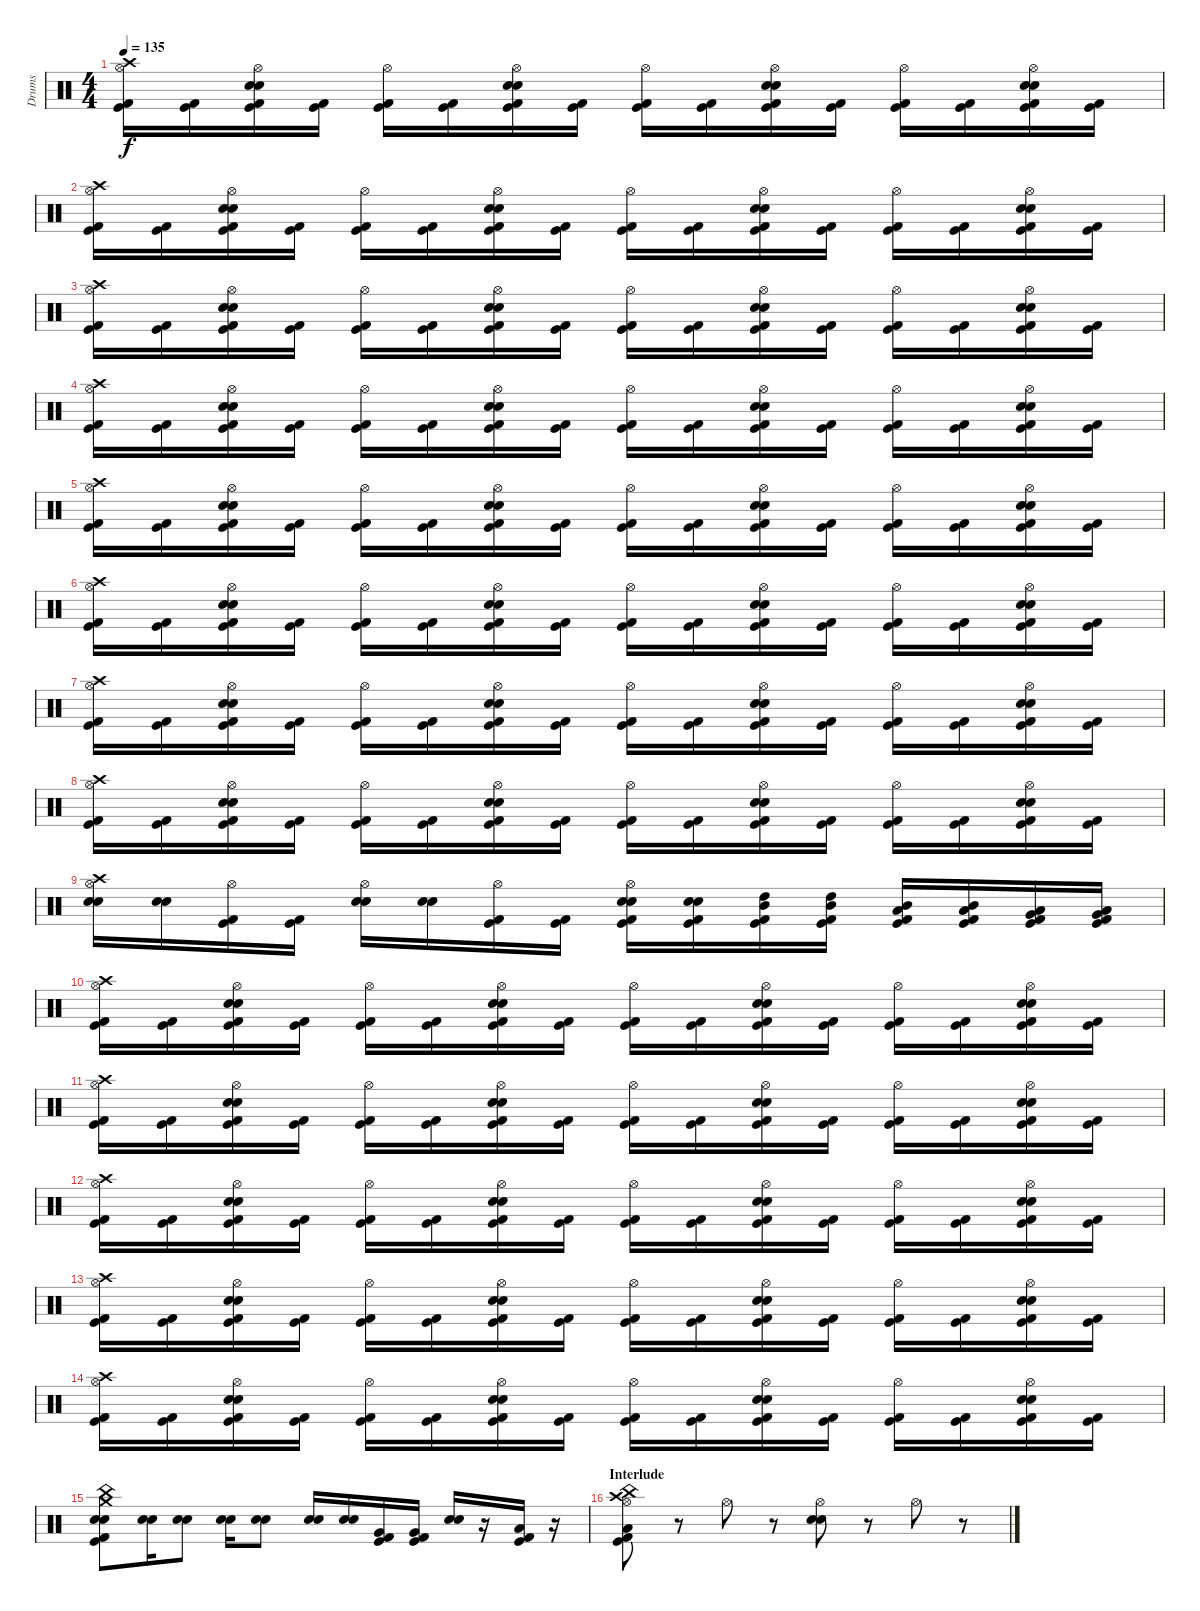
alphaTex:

\track ("Drums" "Drums") {instrument percussion}
\staff {score}
\articulation defaults
\ts (4 4)
\tempo 135
\clef neutral
\ks c
("Crash high (hit)" "Hi-Hat (open)" "Kick (hit) 2" "Kick (hit)").16{dy f} ("Kick (hit) 2" "Kick (hit)").16 ("Hi-Hat (open)" "Snare (hit) 2" "Electric Snare (hit)" "Kick (hit) 2" "Kick (hit)").16 ("Kick (hit) 2" "Kick (hit)").16 ("Hi-Hat (open)" "Kick (hit) 2" "Kick (hit)").16 ("Kick (hit) 2" "Kick (hit)").16 ("Hi-Hat (open)" "Snare (hit) 2" "Electric Snare (hit)" "Kick (hit) 2" "Kick (hit)").16 ("Kick (hit) 2" "Kick (hit)").16 ("Hi-Hat (open)" "Kick (hit) 2" "Kick (hit)").16 ("Kick (hit) 2" "Kick (hit)").16 ("Hi-Hat (open)" "Snare (hit) 2" "Electric Snare (hit)" "Kick (hit) 2" "Kick (hit)").16 ("Kick (hit) 2" "Kick (hit)").16 ("Hi-Hat (open)" "Kick (hit) 2" "Kick (hit)").16 ("Kick (hit) 2" "Kick (hit)").16 ("Hi-Hat (open)" "Snare (hit) 2" "Electric Snare (hit)" "Kick (hit) 2" "Kick (hit)").16 ("Kick (hit) 2" "Kick (hit)").16 |
("Crash high (hit)" "Hi-Hat (open)" "Kick (hit) 2" "Kick (hit)").16 ("Kick (hit) 2" "Kick (hit)").16 ("Hi-Hat (open)" "Snare (hit) 2" "Electric Snare (hit)" "Kick (hit) 2" "Kick (hit)").16 ("Kick (hit) 2" "Kick (hit)").16 ("Hi-Hat (open)" "Kick (hit) 2" "Kick (hit)").16 ("Kick (hit) 2" "Kick (hit)").16 ("Hi-Hat (open)" "Snare (hit) 2" "Electric Snare (hit)" "Kick (hit) 2" "Kick (hit)").16 ("Kick (hit) 2" "Kick (hit)").16 ("Hi-Hat (open)" "Kick (hit) 2" "Kick (hit)").16 ("Kick (hit) 2" "Kick (hit)").16 ("Hi-Hat (open)" "Snare (hit) 2" "Electric Snare (hit)" "Kick (hit) 2" "Kick (hit)").16 ("Kick (hit) 2" "Kick (hit)").16 ("Hi-Hat (open)" "Kick (hit) 2" "Kick (hit)").16 ("Kick (hit) 2" "Kick (hit)").16 ("Hi-Hat (open)" "Snare (hit) 2" "Electric Snare (hit)" "Kick (hit) 2" "Kick (hit)").16 ("Kick (hit) 2" "Kick (hit)").16 |
("Crash high (hit)" "Hi-Hat (open)" "Kick (hit) 2" "Kick (hit)").16 ("Kick (hit) 2" "Kick (hit)").16 ("Hi-Hat (open)" "Snare (hit) 2" "Electric Snare (hit)" "Kick (hit) 2" "Kick (hit)").16 ("Kick (hit) 2" "Kick (hit)").16 ("Hi-Hat (open)" "Kick (hit) 2" "Kick (hit)").16 ("Kick (hit) 2" "Kick (hit)").16 ("Hi-Hat (open)" "Snare (hit) 2" "Electric Snare (hit)" "Kick (hit) 2" "Kick (hit)").16 ("Kick (hit) 2" "Kick (hit)").16 ("Hi-Hat (open)" "Kick (hit) 2" "Kick (hit)").16 ("Kick (hit) 2" "Kick (hit)").16 ("Hi-Hat (open)" "Snare (hit) 2" "Electric Snare (hit)" "Kick (hit) 2" "Kick (hit)").16 ("Kick (hit) 2" "Kick (hit)").16 ("Hi-Hat (open)" "Kick (hit) 2" "Kick (hit)").16 ("Kick (hit) 2" "Kick (hit)").16 ("Hi-Hat (open)" "Snare (hit) 2" "Electric Snare (hit)" "Kick (hit) 2" "Kick (hit)").16 ("Kick (hit) 2" "Kick (hit)").16 |
("Crash high (hit)" "Hi-Hat (open)" "Kick (hit) 2" "Kick (hit)").16 ("Kick (hit) 2" "Kick (hit)").16 ("Hi-Hat (open)" "Snare (hit) 2" "Electric Snare (hit)" "Kick (hit) 2" "Kick (hit)").16 ("Kick (hit) 2" "Kick (hit)").16 ("Hi-Hat (open)" "Kick (hit) 2" "Kick (hit)").16 ("Kick (hit) 2" "Kick (hit)").16 ("Hi-Hat (open)" "Snare (hit) 2" "Electric Snare (hit)" "Kick (hit) 2" "Kick (hit)").16 ("Kick (hit) 2" "Kick (hit)").16 ("Hi-Hat (open)" "Kick (hit) 2" "Kick (hit)").16 ("Kick (hit) 2" "Kick (hit)").16 ("Hi-Hat (open)" "Snare (hit) 2" "Electric Snare (hit)" "Kick (hit) 2" "Kick (hit)").16 ("Kick (hit) 2" "Kick (hit)").16 ("Hi-Hat (open)" "Kick (hit) 2" "Kick (hit)").16 ("Kick (hit) 2" "Kick (hit)").16 ("Hi-Hat (open)" "Snare (hit) 2" "Electric Snare (hit)" "Kick (hit) 2" "Kick (hit)").16 ("Kick (hit) 2" "Kick (hit)").16 |
("Crash high (hit)" "Hi-Hat (open)" "Kick (hit) 2" "Kick (hit)").16 ("Kick (hit) 2" "Kick (hit)").16 ("Hi-Hat (open)" "Snare (hit) 2" "Electric Snare (hit)" "Kick (hit) 2" "Kick (hit)").16 ("Kick (hit) 2" "Kick (hit)").16 ("Hi-Hat (open)" "Kick (hit) 2" "Kick (hit)").16 ("Kick (hit) 2" "Kick (hit)").16 ("Hi-Hat (open)" "Snare (hit) 2" "Electric Snare (hit)" "Kick (hit) 2" "Kick (hit)").16 ("Kick (hit) 2" "Kick (hit)").16 ("Hi-Hat (open)" "Kick (hit) 2" "Kick (hit)").16 ("Kick (hit) 2" "Kick (hit)").16 ("Hi-Hat (open)" "Snare (hit) 2" "Electric Snare (hit)" "Kick (hit) 2" "Kick (hit)").16 ("Kick (hit) 2" "Kick (hit)").16 ("Hi-Hat (open)" "Kick (hit) 2" "Kick (hit)").16 ("Kick (hit) 2" "Kick (hit)").16 ("Hi-Hat (open)" "Snare (hit) 2" "Electric Snare (hit)" "Kick (hit) 2" "Kick (hit)").16 ("Kick (hit) 2" "Kick (hit)").16 |
("Crash high (hit)" "Hi-Hat (open)" "Kick (hit) 2" "Kick (hit)").16 ("Kick (hit) 2" "Kick (hit)").16 ("Hi-Hat (open)" "Snare (hit) 2" "Electric Snare (hit)" "Kick (hit) 2" "Kick (hit)").16 ("Kick (hit) 2" "Kick (hit)").16 ("Hi-Hat (open)" "Kick (hit) 2" "Kick (hit)").16 ("Kick (hit) 2" "Kick (hit)").16 ("Hi-Hat (open)" "Snare (hit) 2" "Electric Snare (hit)" "Kick (hit) 2" "Kick (hit)").16 ("Kick (hit) 2" "Kick (hit)").16 ("Hi-Hat (open)" "Kick (hit) 2" "Kick (hit)").16 ("Kick (hit) 2" "Kick (hit)").16 ("Hi-Hat (open)" "Snare (hit) 2" "Electric Snare (hit)" "Kick (hit) 2" "Kick (hit)").16 ("Kick (hit) 2" "Kick (hit)").16 ("Hi-Hat (open)" "Kick (hit) 2" "Kick (hit)").16 ("Kick (hit) 2" "Kick (hit)").16 ("Hi-Hat (open)" "Snare (hit) 2" "Electric Snare (hit)" "Kick (hit) 2" "Kick (hit)").16 ("Kick (hit) 2" "Kick (hit)").16 |
("Crash high (hit)" "Hi-Hat (open)" "Kick (hit) 2" "Kick (hit)").16 ("Kick (hit) 2" "Kick (hit)").16 ("Hi-Hat (open)" "Snare (hit) 2" "Electric Snare (hit)" "Kick (hit) 2" "Kick (hit)").16 ("Kick (hit) 2" "Kick (hit)").16 ("Hi-Hat (open)" "Kick (hit) 2" "Kick (hit)").16 ("Kick (hit) 2" "Kick (hit)").16 ("Hi-Hat (open)" "Snare (hit) 2" "Electric Snare (hit)" "Kick (hit) 2" "Kick (hit)").16 ("Kick (hit) 2" "Kick (hit)").16 ("Hi-Hat (open)" "Kick (hit) 2" "Kick (hit)").16 ("Kick (hit) 2" "Kick (hit)").16 ("Hi-Hat (open)" "Snare (hit) 2" "Electric Snare (hit)" "Kick (hit) 2" "Kick (hit)").16 ("Kick (hit) 2" "Kick (hit)").16 ("Hi-Hat (open)" "Kick (hit) 2" "Kick (hit)").16 ("Kick (hit) 2" "Kick (hit)").16 ("Hi-Hat (open)" "Snare (hit) 2" "Electric Snare (hit)" "Kick (hit) 2" "Kick (hit)").16 ("Kick (hit) 2" "Kick (hit)").16 |
("Crash high (hit)" "Hi-Hat (open)" "Kick (hit) 2" "Kick (hit)").16 ("Kick (hit) 2" "Kick (hit)").16 ("Hi-Hat (open)" "Snare (hit) 2" "Electric Snare (hit)" "Kick (hit) 2" "Kick (hit)").16 ("Kick (hit) 2" "Kick (hit)").16 ("Hi-Hat (open)" "Kick (hit) 2" "Kick (hit)").16 ("Kick (hit) 2" "Kick (hit)").16 ("Hi-Hat (open)" "Snare (hit) 2" "Electric Snare (hit)" "Kick (hit) 2" "Kick (hit)").16 ("Kick (hit) 2" "Kick (hit)").16 ("Hi-Hat (open)" "Kick (hit) 2" "Kick (hit)").16 ("Kick (hit) 2" "Kick (hit)").16 ("Hi-Hat (open)" "Snare (hit) 2" "Electric Snare (hit)" "Kick (hit) 2" "Kick (hit)").16 ("Kick (hit) 2" "Kick (hit)").16 ("Hi-Hat (open)" "Kick (hit) 2" "Kick (hit)").16 ("Kick (hit) 2" "Kick (hit)").16 ("Hi-Hat (open)" "Snare (hit) 2" "Electric Snare (hit)" "Kick (hit) 2" "Kick (hit)").16 ("Kick (hit) 2" "Kick (hit)").16 |
("Crash high (hit)" "Hi-Hat (open)" "Electric Snare (hit)" "Snare (hit) 2").16 ("Snare (hit) 2" "Electric Snare (hit)").16 ("Hi-Hat (open)" "Kick (hit) 2" "Kick (hit)").16 ("Kick (hit) 2" "Kick (hit)").16 ("Hi-Hat (open)" "Electric Snare (hit)" "Snare (hit) 2").16 ("Electric Snare (hit)" "Snare (hit) 2").16 ("Hi-Hat (open)" "Kick (hit) 2" "Kick (hit)").16 ("Kick (hit) 2" "Kick (hit)").16 ("Hi-Hat (open)" "Electric Snare (hit)" "Snare (hit) 2" "Kick (hit) 2" "Kick (hit)").16 ("Electric Snare (hit)" "Snare (hit) 2" "Kick (hit) 2" "Kick (hit)").16 ("High Tom (hit)" "Mid Tom (hit)" "Kick (hit) 2" "Kick (hit)").16 ("High Tom (hit)" "Mid Tom (hit)" "Kick (hit) 2" "Kick (hit)").16 ("Mid Tom (hit)" "Low Tom (hit)" "Kick (hit) 2" "Kick (hit)").16 ("Mid Tom (hit)" "Low Tom (hit)" "Kick (hit) 2" "Kick (hit)").16 ("Low Tom (hit)" "Very Low Tom (hit)" "Kick (hit) 2" "Kick (hit)").16 ("Low Tom (hit)" "Very Low Tom (hit)" "Kick (hit) 2" "Kick (hit)").16 |
("Crash high (hit)" "Hi-Hat (open)" "Kick (hit) 2" "Kick (hit)").16 ("Kick (hit) 2" "Kick (hit)").16 ("Hi-Hat (open)" "Snare (hit) 2" "Electric Snare (hit)" "Kick (hit) 2" "Kick (hit)").16 ("Kick (hit) 2" "Kick (hit)").16 ("Hi-Hat (open)" "Kick (hit) 2" "Kick (hit)").16 ("Kick (hit) 2" "Kick (hit)").16 ("Hi-Hat (open)" "Snare (hit) 2" "Electric Snare (hit)" "Kick (hit) 2" "Kick (hit)").16 ("Kick (hit) 2" "Kick (hit)").16 ("Hi-Hat (open)" "Kick (hit) 2" "Kick (hit)").16 ("Kick (hit) 2" "Kick (hit)").16 ("Hi-Hat (open)" "Snare (hit) 2" "Electric Snare (hit)" "Kick (hit) 2" "Kick (hit)").16 ("Kick (hit) 2" "Kick (hit)").16 ("Hi-Hat (open)" "Kick (hit) 2" "Kick (hit)").16 ("Kick (hit) 2" "Kick (hit)").16 ("Hi-Hat (open)" "Snare (hit) 2" "Electric Snare (hit)" "Kick (hit) 2" "Kick (hit)").16 ("Kick (hit) 2" "Kick (hit)").16 |
("Crash high (hit)" "Hi-Hat (open)" "Kick (hit) 2" "Kick (hit)").16 ("Kick (hit) 2" "Kick (hit)").16 ("Hi-Hat (open)" "Snare (hit) 2" "Electric Snare (hit)" "Kick (hit) 2" "Kick (hit)").16 ("Kick (hit) 2" "Kick (hit)").16 ("Hi-Hat (open)" "Kick (hit) 2" "Kick (hit)").16 ("Kick (hit) 2" "Kick (hit)").16 ("Hi-Hat (open)" "Snare (hit) 2" "Electric Snare (hit)" "Kick (hit) 2" "Kick (hit)").16 ("Kick (hit) 2" "Kick (hit)").16 ("Hi-Hat (open)" "Kick (hit) 2" "Kick (hit)").16 ("Kick (hit) 2" "Kick (hit)").16 ("Hi-Hat (open)" "Snare (hit) 2" "Electric Snare (hit)" "Kick (hit) 2" "Kick (hit)").16 ("Kick (hit) 2" "Kick (hit)").16 ("Hi-Hat (open)" "Kick (hit) 2" "Kick (hit)").16 ("Kick (hit) 2" "Kick (hit)").16 ("Hi-Hat (open)" "Snare (hit) 2" "Electric Snare (hit)" "Kick (hit) 2" "Kick (hit)").16 ("Kick (hit) 2" "Kick (hit)").16 |
("Crash high (hit)" "Hi-Hat (open)" "Kick (hit) 2" "Kick (hit)").16 ("Kick (hit) 2" "Kick (hit)").16 ("Hi-Hat (open)" "Snare (hit) 2" "Electric Snare (hit)" "Kick (hit) 2" "Kick (hit)").16 ("Kick (hit) 2" "Kick (hit)").16 ("Hi-Hat (open)" "Kick (hit) 2" "Kick (hit)").16 ("Kick (hit) 2" "Kick (hit)").16 ("Hi-Hat (open)" "Snare (hit) 2" "Electric Snare (hit)" "Kick (hit) 2" "Kick (hit)").16 ("Kick (hit) 2" "Kick (hit)").16 ("Hi-Hat (open)" "Kick (hit) 2" "Kick (hit)").16 ("Kick (hit) 2" "Kick (hit)").16 ("Hi-Hat (open)" "Snare (hit) 2" "Electric Snare (hit)" "Kick (hit) 2" "Kick (hit)").16 ("Kick (hit) 2" "Kick (hit)").16 ("Hi-Hat (open)" "Kick (hit) 2" "Kick (hit)").16 ("Kick (hit) 2" "Kick (hit)").16 ("Hi-Hat (open)" "Snare (hit) 2" "Electric Snare (hit)" "Kick (hit) 2" "Kick (hit)").16 ("Kick (hit) 2" "Kick (hit)").16 |
("Crash high (hit)" "Hi-Hat (open)" "Kick (hit) 2" "Kick (hit)").16 ("Kick (hit) 2" "Kick (hit)").16 ("Hi-Hat (open)" "Snare (hit) 2" "Electric Snare (hit)" "Kick (hit) 2" "Kick (hit)").16 ("Kick (hit) 2" "Kick (hit)").16 ("Hi-Hat (open)" "Kick (hit) 2" "Kick (hit)").16 ("Kick (hit) 2" "Kick (hit)").16 ("Hi-Hat (open)" "Snare (hit) 2" "Electric Snare (hit)" "Kick (hit) 2" "Kick (hit)").16 ("Kick (hit) 2" "Kick (hit)").16 ("Hi-Hat (open)" "Kick (hit) 2" "Kick (hit)").16 ("Kick (hit) 2" "Kick (hit)").16 ("Hi-Hat (open)" "Snare (hit) 2" "Electric Snare (hit)" "Kick (hit) 2" "Kick (hit)").16 ("Kick (hit) 2" "Kick (hit)").16 ("Hi-Hat (open)" "Kick (hit) 2" "Kick (hit)").16 ("Kick (hit) 2" "Kick (hit)").16 ("Hi-Hat (open)" "Snare (hit) 2" "Electric Snare (hit)" "Kick (hit) 2" "Kick (hit)").16 ("Kick (hit) 2" "Kick (hit)").16 |
("Crash high (hit)" "Hi-Hat (open)" "Kick (hit) 2" "Kick (hit)").16 ("Kick (hit) 2" "Kick (hit)").16 ("Hi-Hat (open)" "Snare (hit) 2" "Electric Snare (hit)" "Kick (hit) 2" "Kick (hit)").16 ("Kick (hit) 2" "Kick (hit)").16 ("Hi-Hat (open)" "Kick (hit) 2" "Kick (hit)").16 ("Kick (hit) 2" "Kick (hit)").16 ("Hi-Hat (open)" "Snare (hit) 2" "Electric Snare (hit)" "Kick (hit) 2" "Kick (hit)").16 ("Kick (hit) 2" "Kick (hit)").16 ("Hi-Hat (open)" "Kick (hit) 2" "Kick (hit)").16 ("Kick (hit) 2" "Kick (hit)").16 ("Hi-Hat (open)" "Snare (hit) 2" "Electric Snare (hit)" "Kick (hit) 2" "Kick (hit)").16 ("Kick (hit) 2" "Kick (hit)").16 ("Hi-Hat (open)" "Kick (hit) 2" "Kick (hit)").16 ("Kick (hit) 2" "Kick (hit)").16 ("Hi-Hat (open)" "Snare (hit) 2" "Electric Snare (hit)" "Kick (hit) 2" "Kick (hit)").16 ("Kick (hit) 2" "Kick (hit)").16 |
("China (hit)" "Crash medium (hit)" "Electric Snare (hit)" "Snare (hit) 2" "Kick (hit) 2" "Kick (hit)").8 ("Electric Snare (hit)" "Snare (hit) 2").16 ("Electric Snare (hit)" "Snare (hit) 2").8 ("Electric Snare (hit)" "Snare (hit) 2").16 ("Electric Snare (hit)" "Snare (hit) 2").8 ("Electric Snare (hit)" "Snare (hit) 2").16 ("Electric Snare (hit)" "Snare (hit) 2").16 ("Very Low Tom (hit)" "Kick (hit) 2" "Kick (hit)").16 ("Very Low Tom (hit)" "Kick (hit) 2" "Kick (hit)").16 ("Electric Snare (hit)" "Snare (hit) 2").16 r.16 ("Low Tom (hit)" "Kick (hit) 2" "Kick (hit)").16 r.16 |
\section ("" "Interlude")
("Crash high (hit)" "Hi-Hat (open)" "China (hit)" "Low Floor Tom (hit)" "Kick (hit) 2" "Kick (hit)").8 r.8 "Hi-Hat (open)".8 r.8 ("Hi-Hat (open)" "Electric Snare (hit)" "Snare (hit) 2").8 r.8 "Hi-Hat (open)".8 r.8
